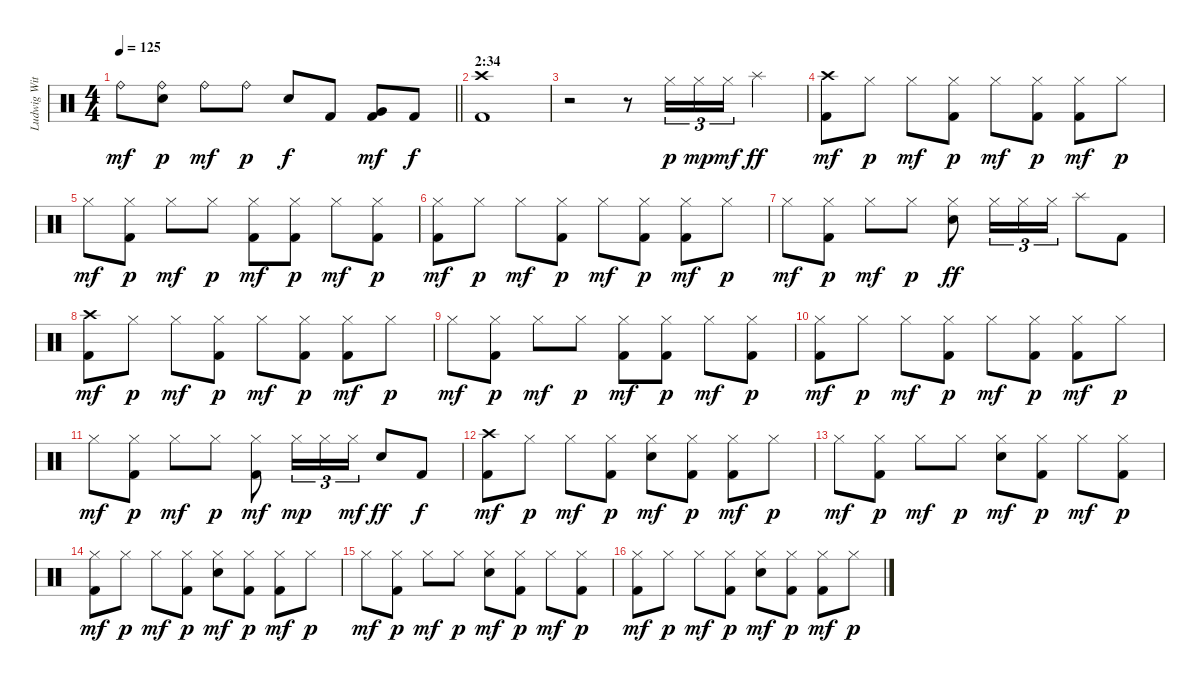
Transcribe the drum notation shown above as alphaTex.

\track ("Ludwig Witt" "Ludwig Wit") {instrument percussion}
\staff {score}
\articulation defaults
\ts (4 4)
\tempo 125
\clef neutral
\barLineRight lightlight
\ks c "Ride (bell)".8{dy mf}
("Ride (bell)" "Electric Snare (hit)").8{dy p} "Ride (bell)".8{dy mf} "Ride (bell)".8{dy p} "Electric Snare (hit)".8{dy f} "Kick (hit) 2".8 ("Very Low Tom (hit)" "Kick (hit) 2").8{dy mf} "Kick (hit) 2".8{dy f} |
\section ("" "2:34")
("Crash high (hit)" "Kick (hit) 2").1 |
r.2 r.8 "Hi-Hat (closed)".16{tu (3 2) dy p} "Hi-Hat (closed)".16{tu (3 2) dy mp} "Hi-Hat (closed)".16{tu (3 2) dy mf} "Splash (hit)".4{dy ff} |
("Crash high (hit)" "Kick (hit) 2").8{dy mf} "Hi-Hat (closed)".8{dy p} "Hi-Hat (closed)".8{dy mf} ("Hi-Hat (closed)" "Kick (hit) 2").8{dy p} "Hi-Hat (closed)".8{dy mf} ("Hi-Hat (closed)" "Kick (hit) 2").8{dy p} ("Hi-Hat (closed)" "Kick (hit) 2").8{dy mf} "Hi-Hat (closed)".8{dy p} |
"Hi-Hat (closed)".8{dy mf} ("Hi-Hat (closed)" "Kick (hit) 2").8{dy p} "Hi-Hat (closed)".8{dy mf} "Hi-Hat (closed)".8{dy p} ("Hi-Hat (closed)" "Kick (hit) 2").8{dy mf} ("Hi-Hat (closed)" "Kick (hit) 2").8{dy p} "Hi-Hat (closed)".8{dy mf} ("Hi-Hat (closed)" "Kick (hit) 2").8{dy p} |
("Hi-Hat (closed)" "Kick (hit) 2").8{dy mf} "Hi-Hat (closed)".8{dy p} "Hi-Hat (closed)".8{dy mf} ("Hi-Hat (closed)" "Kick (hit) 2").8{dy p} "Hi-Hat (closed)".8{dy mf} ("Hi-Hat (closed)" "Kick (hit) 2").8{dy p} ("Hi-Hat (closed)" "Kick (hit) 2").8{dy mf} "Hi-Hat (closed)".8{dy p} |
"Hi-Hat (closed)".8{dy mf} ("Hi-Hat (closed)" "Kick (hit) 2").8{dy p} "Hi-Hat (closed)".8{dy mf} "Hi-Hat (closed)".8{dy p} ("Hi-Hat (closed)" "Electric Snare (hit)").8{dy ff} "Hi-Hat (closed)".16{tu (3 2)} "Hi-Hat (closed)".16{tu (3 2)} "Hi-Hat (closed)".16{tu (3 2)} "Splash (hit)".8 "Kick (hit) 2".8 |
("Crash high (hit)" "Kick (hit) 2").8{dy mf} "Hi-Hat (closed)".8{dy p} "Hi-Hat (closed)".8{dy mf} ("Hi-Hat (closed)" "Kick (hit) 2").8{dy p} "Hi-Hat (closed)".8{dy mf} ("Hi-Hat (closed)" "Kick (hit) 2").8{dy p} ("Hi-Hat (closed)" "Kick (hit) 2").8{dy mf} "Hi-Hat (closed)".8{dy p} |
"Hi-Hat (closed)".8{dy mf} ("Hi-Hat (closed)" "Kick (hit) 2").8{dy p} "Hi-Hat (closed)".8{dy mf} "Hi-Hat (closed)".8{dy p} ("Hi-Hat (closed)" "Kick (hit) 2").8{dy mf} ("Hi-Hat (closed)" "Kick (hit) 2").8{dy p} "Hi-Hat (closed)".8{dy mf} ("Hi-Hat (closed)" "Kick (hit) 2").8{dy p} |
("Hi-Hat (closed)" "Kick (hit) 2").8{dy mf} "Hi-Hat (closed)".8{dy p} "Hi-Hat (closed)".8{dy mf} ("Hi-Hat (closed)" "Kick (hit) 2").8{dy p} "Hi-Hat (closed)".8{dy mf} ("Hi-Hat (closed)" "Kick (hit) 2").8{dy p} ("Hi-Hat (closed)" "Kick (hit) 2").8{dy mf} "Hi-Hat (closed)".8{dy p} |
"Hi-Hat (closed)".8{dy mf} ("Hi-Hat (closed)" "Kick (hit) 2").8{dy p} "Hi-Hat (closed)".8{dy mf} "Hi-Hat (closed)".8{dy p} ("Hi-Hat (closed)" "Kick (hit) 2").8{dy mf} "Hi-Hat (closed)".16{tu (3 2) dy mp} "Hi-Hat (closed)".16{tu (3 2)} "Hi-Hat (closed)".16{tu (3 2) dy mf} "Electric Snare (hit)".8{dy ff} "Kick (hit) 2".8{dy f} |
("Crash high (hit)" "Kick (hit) 2").8{dy mf} "Hi-Hat (closed)".8{dy p} "Hi-Hat (closed)".8{dy mf} ("Hi-Hat (closed)" "Kick (hit) 2").8{dy p} ("Hi-Hat (closed)" "Electric Snare (hit)").8{dy mf} ("Hi-Hat (closed)" "Kick (hit) 2").8{dy p} ("Hi-Hat (closed)" "Kick (hit) 2").8{dy mf} "Hi-Hat (closed)".8{dy p} |
"Hi-Hat (closed)".8{dy mf} ("Hi-Hat (closed)" "Kick (hit) 2").8{dy p} "Hi-Hat (closed)".8{dy mf} "Hi-Hat (closed)".8{dy p} ("Hi-Hat (closed)" "Electric Snare (hit)").8{dy mf} ("Hi-Hat (closed)" "Kick (hit) 2").8{dy p} "Hi-Hat (closed)".8{dy mf} ("Hi-Hat (closed)" "Kick (hit) 2").8{dy p} |
("Hi-Hat (closed)" "Kick (hit) 2").8{dy mf} "Hi-Hat (closed)".8{dy p} "Hi-Hat (closed)".8{dy mf} ("Hi-Hat (closed)" "Kick (hit) 2").8{dy p} ("Hi-Hat (closed)" "Electric Snare (hit)").8{dy mf} ("Hi-Hat (closed)" "Kick (hit) 2").8{dy p} ("Hi-Hat (closed)" "Kick (hit) 2").8{dy mf} "Hi-Hat (closed)".8{dy p} |
"Hi-Hat (closed)".8{dy mf} ("Hi-Hat (closed)" "Kick (hit) 2").8{dy p} "Hi-Hat (closed)".8{dy mf} "Hi-Hat (closed)".8{dy p} ("Hi-Hat (closed)" "Electric Snare (hit)").8{dy mf} ("Hi-Hat (closed)" "Kick (hit) 2").8{dy p} "Hi-Hat (closed)".8{dy mf} ("Hi-Hat (closed)" "Kick (hit) 2").8{dy p} |
("Hi-Hat (closed)" "Kick (hit) 2").8{dy mf} "Hi-Hat (closed)".8{dy p} "Hi-Hat (closed)".8{dy mf} ("Hi-Hat (closed)" "Kick (hit) 2").8{dy p} ("Hi-Hat (closed)" "Electric Snare (hit)").8{dy mf} ("Hi-Hat (closed)" "Kick (hit) 2").8{dy p} ("Hi-Hat (closed)" "Kick (hit) 2").8{dy mf} "Hi-Hat (closed)".8{dy p}
